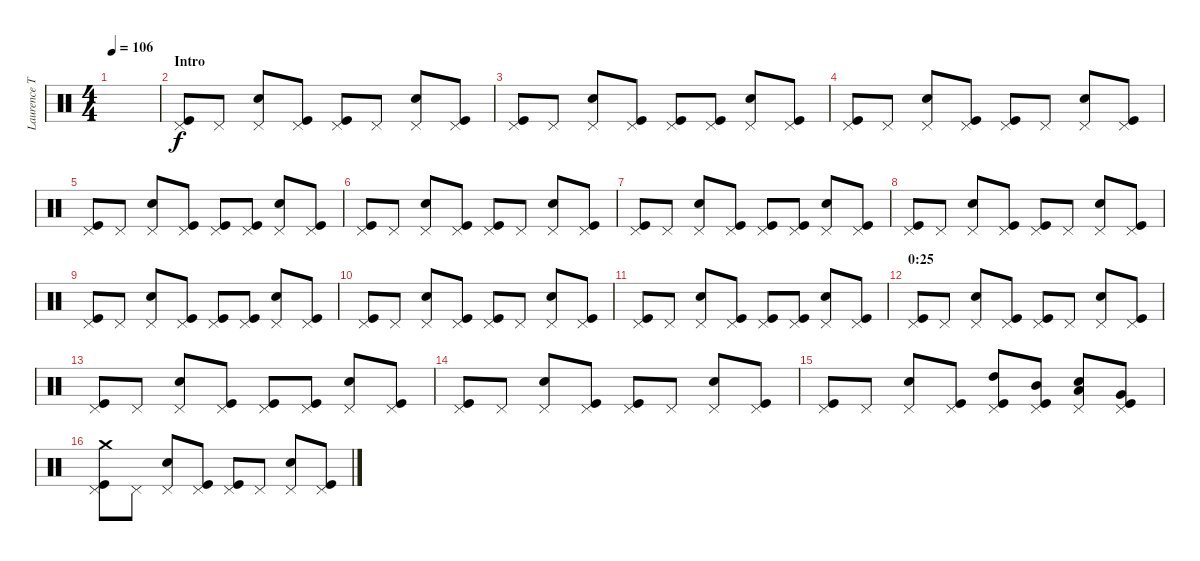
\track ("Laurence Tolhurst (drums)" "Laurence T") {instrument percussion}
\staff {score}
\articulation defaults
\ts (4 4)
\tempo 106
\clef neutral
\ks c
|
\section ("" "Intro")
("Pedal Hi-Hat (hit)" "Kick (hit)").8{volume 13} "Pedal Hi-Hat (hit)".8 ("Pedal Hi-Hat (hit)" "Snare (hit) 2").8 ("Pedal Hi-Hat (hit)" "Kick (hit)").8 ("Pedal Hi-Hat (hit)" "Kick (hit)").8 "Pedal Hi-Hat (hit)".8 ("Pedal Hi-Hat (hit)" "Snare (hit) 2").8 ("Pedal Hi-Hat (hit)" "Kick (hit)").8 |
("Pedal Hi-Hat (hit)" "Kick (hit)").8 "Pedal Hi-Hat (hit)".8 ("Pedal Hi-Hat (hit)" "Snare (hit) 2").8 ("Pedal Hi-Hat (hit)" "Kick (hit)").8 ("Pedal Hi-Hat (hit)" "Kick (hit)").8 ("Pedal Hi-Hat (hit)" "Kick (hit)").8 ("Pedal Hi-Hat (hit)" "Snare (hit) 2").8 ("Pedal Hi-Hat (hit)" "Kick (hit)").8 |
("Pedal Hi-Hat (hit)" "Kick (hit)").8 "Pedal Hi-Hat (hit)".8 ("Pedal Hi-Hat (hit)" "Snare (hit) 2").8 ("Pedal Hi-Hat (hit)" "Kick (hit)").8 ("Pedal Hi-Hat (hit)" "Kick (hit)").8 "Pedal Hi-Hat (hit)".8 ("Pedal Hi-Hat (hit)" "Snare (hit) 2").8 ("Pedal Hi-Hat (hit)" "Kick (hit)").8 |
("Pedal Hi-Hat (hit)" "Kick (hit)").8 "Pedal Hi-Hat (hit)".8 ("Pedal Hi-Hat (hit)" "Snare (hit) 2").8 ("Pedal Hi-Hat (hit)" "Kick (hit)").8 ("Pedal Hi-Hat (hit)" "Kick (hit)").8 ("Pedal Hi-Hat (hit)" "Kick (hit)").8 ("Pedal Hi-Hat (hit)" "Snare (hit) 2").8 ("Pedal Hi-Hat (hit)" "Kick (hit)").8 |
("Pedal Hi-Hat (hit)" "Kick (hit)").8 "Pedal Hi-Hat (hit)".8 ("Pedal Hi-Hat (hit)" "Snare (hit) 2").8 ("Pedal Hi-Hat (hit)" "Kick (hit)").8 ("Pedal Hi-Hat (hit)" "Kick (hit)").8 "Pedal Hi-Hat (hit)".8 ("Pedal Hi-Hat (hit)" "Snare (hit) 2").8 ("Pedal Hi-Hat (hit)" "Kick (hit)").8 |
("Pedal Hi-Hat (hit)" "Kick (hit)").8 "Pedal Hi-Hat (hit)".8 ("Pedal Hi-Hat (hit)" "Snare (hit) 2").8 ("Pedal Hi-Hat (hit)" "Kick (hit)").8 ("Pedal Hi-Hat (hit)" "Kick (hit)").8 ("Pedal Hi-Hat (hit)" "Kick (hit)").8 ("Pedal Hi-Hat (hit)" "Snare (hit) 2").8 ("Pedal Hi-Hat (hit)" "Kick (hit)").8 |
("Pedal Hi-Hat (hit)" "Kick (hit)").8 "Pedal Hi-Hat (hit)".8 ("Pedal Hi-Hat (hit)" "Snare (hit) 2").8 ("Pedal Hi-Hat (hit)" "Kick (hit)").8 ("Pedal Hi-Hat (hit)" "Kick (hit)").8 "Pedal Hi-Hat (hit)".8 ("Pedal Hi-Hat (hit)" "Snare (hit) 2").8 ("Pedal Hi-Hat (hit)" "Kick (hit)").8 |
("Pedal Hi-Hat (hit)" "Kick (hit)").8 "Pedal Hi-Hat (hit)".8 ("Pedal Hi-Hat (hit)" "Snare (hit) 2").8 ("Pedal Hi-Hat (hit)" "Kick (hit)").8 ("Pedal Hi-Hat (hit)" "Kick (hit)").8 ("Pedal Hi-Hat (hit)" "Kick (hit)").8 ("Pedal Hi-Hat (hit)" "Snare (hit) 2").8 ("Pedal Hi-Hat (hit)" "Kick (hit)").8 |
("Pedal Hi-Hat (hit)" "Kick (hit)").8 "Pedal Hi-Hat (hit)".8 ("Pedal Hi-Hat (hit)" "Snare (hit) 2").8 ("Pedal Hi-Hat (hit)" "Kick (hit)").8 ("Pedal Hi-Hat (hit)" "Kick (hit)").8 "Pedal Hi-Hat (hit)".8 ("Pedal Hi-Hat (hit)" "Snare (hit) 2").8 ("Pedal Hi-Hat (hit)" "Kick (hit)").8 |
("Pedal Hi-Hat (hit)" "Kick (hit)").8 "Pedal Hi-Hat (hit)".8 ("Pedal Hi-Hat (hit)" "Snare (hit) 2").8 ("Pedal Hi-Hat (hit)" "Kick (hit)").8 ("Pedal Hi-Hat (hit)" "Kick (hit)").8 ("Pedal Hi-Hat (hit)" "Kick (hit)").8 ("Pedal Hi-Hat (hit)" "Snare (hit) 2").8 ("Pedal Hi-Hat (hit)" "Kick (hit)").8 |
\section ("" "0:25")
("Pedal Hi-Hat (hit)" "Kick (hit)").8 "Pedal Hi-Hat (hit)".8 ("Pedal Hi-Hat (hit)" "Snare (hit) 2").8 ("Pedal Hi-Hat (hit)" "Kick (hit)").8 ("Pedal Hi-Hat (hit)" "Kick (hit)").8 "Pedal Hi-Hat (hit)".8 ("Pedal Hi-Hat (hit)" "Snare (hit) 2").8 ("Pedal Hi-Hat (hit)" "Kick (hit)").8 |
("Pedal Hi-Hat (hit)" "Kick (hit)").8 "Pedal Hi-Hat (hit)".8 ("Pedal Hi-Hat (hit)" "Snare (hit) 2").8 ("Pedal Hi-Hat (hit)" "Kick (hit)").8 ("Pedal Hi-Hat (hit)" "Kick (hit)").8 ("Pedal Hi-Hat (hit)" "Kick (hit)").8 ("Pedal Hi-Hat (hit)" "Snare (hit) 2").8 ("Pedal Hi-Hat (hit)" "Kick (hit)").8 |
("Pedal Hi-Hat (hit)" "Kick (hit)").8 "Pedal Hi-Hat (hit)".8 ("Pedal Hi-Hat (hit)" "Snare (hit) 2").8 ("Pedal Hi-Hat (hit)" "Kick (hit)").8 ("Pedal Hi-Hat (hit)" "Kick (hit)").8 "Pedal Hi-Hat (hit)".8 ("Pedal Hi-Hat (hit)" "Snare (hit) 2").8 ("Pedal Hi-Hat (hit)" "Kick (hit)").8 |
("Pedal Hi-Hat (hit)" "Kick (hit)").8 "Pedal Hi-Hat (hit)".8 ("Pedal Hi-Hat (hit)" "Snare (hit) 2").8 ("Pedal Hi-Hat (hit)" "Kick (hit)").8 ("High Tom (hit)" "Pedal Hi-Hat (hit)" "Kick (hit)").8 ("Mid Tom (hit)" "Pedal Hi-Hat (hit)" "Kick (hit)").8 ("Low Tom (hit)" "Pedal Hi-Hat (hit)" "Snare (hit) 2").8 ("Very Low Tom (hit)" "Pedal Hi-Hat (hit)" "Kick (hit)").8 |
("Crash medium (hit)" "Pedal Hi-Hat (hit)" "Kick (hit)").8 "Pedal Hi-Hat (hit)".8 ("Pedal Hi-Hat (hit)" "Snare (hit) 2").8 ("Pedal Hi-Hat (hit)" "Kick (hit)").8 ("Pedal Hi-Hat (hit)" "Kick (hit)").8 "Pedal Hi-Hat (hit)".8 ("Pedal Hi-Hat (hit)" "Snare (hit) 2").8 ("Pedal Hi-Hat (hit)" "Kick (hit)").8
